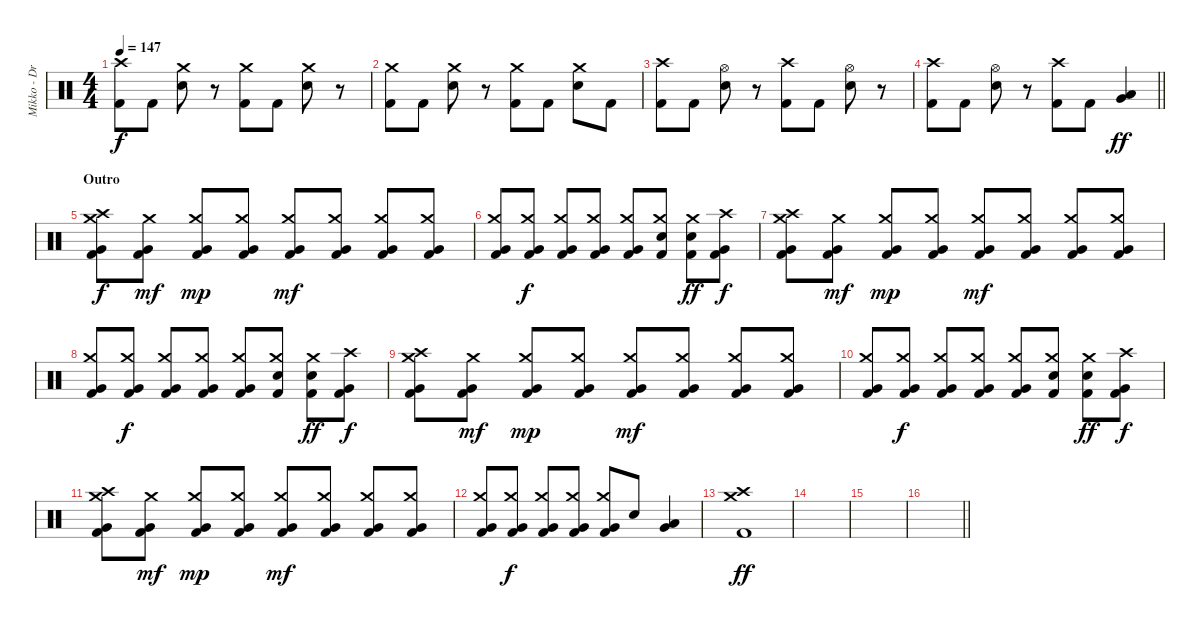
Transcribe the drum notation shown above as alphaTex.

\track ("Mikko - Drums" "Mikko - Dr") {instrument percussion}
\staff {score}
\articulation defaults
\ts (4 4)
\tempo 147
\clef neutral
\ks c
("Crash high (hit)" "Kick (hit) 2").8{dy f} "Kick (hit) 2".8 ("Crash medium (hit)" "Snare (hit) 2").8 r.8 ("Crash medium (hit)" "Kick (hit) 2").8 "Kick (hit) 2".8 ("Crash medium (hit)" "Snare (hit) 2").8 r.8 |
("Crash medium (hit)" "Kick (hit) 2").8 "Kick (hit) 2".8 ("Crash medium (hit)" "Snare (hit) 2").8 r.8 ("Crash medium (hit)" "Kick (hit) 2").8 "Kick (hit) 2".8 ("Crash medium (hit)" "Snare (hit) 2").8 "Kick (hit) 2".8 |
("Crash high (hit)" "Kick (hit) 2").8 "Kick (hit) 2".8 ("Hi-Hat (open)" "Snare (hit) 2").8 r.8 ("Crash high (hit)" "Kick (hit) 2").8 "Kick (hit) 2".8 ("Hi-Hat (open)" "Snare (hit) 2").8 r.8 |
\barLineRight lightlight
("Crash high (hit)" "Kick (hit) 2").8 "Kick (hit) 2".8 ("Hi-Hat (open)" "Snare (hit) 2").8 r.8 ("Crash high (hit)" "Kick (hit) 2").8 "Kick (hit) 2".8 ("Low Tom (hit)" "Very Low Tom (hit)").4{dy ff} |
\section ("" "Outro")
("Crash medium (hit)" "Crash high (hit)" "Very Low Tom (hit)" "Kick (hit) 2").8{dy f} ("Crash medium (hit)" "Very Low Tom (hit)" "Kick (hit) 2").8{dy mf} ("Crash medium (hit)" "Very Low Tom (hit)" "Kick (hit) 2").8{dy mp} ("Crash medium (hit)" "Very Low Tom (hit)" "Kick (hit) 2").8 ("Crash medium (hit)" "Very Low Tom (hit)" "Kick (hit) 2").8{dy mf} ("Crash medium (hit)" "Very Low Tom (hit)" "Kick (hit) 2").8 ("Crash medium (hit)" "Very Low Tom (hit)" "Kick (hit) 2").8 ("Crash medium (hit)" "Very Low Tom (hit)" "Kick (hit) 2").8 |
("Crash medium (hit)" "Very Low Tom (hit)" "Kick (hit) 2").8 ("Crash medium (hit)" "Very Low Tom (hit)" "Kick (hit) 2").8{dy f} ("Crash medium (hit)" "Very Low Tom (hit)" "Kick (hit) 2").8 ("Crash medium (hit)" "Very Low Tom (hit)" "Kick (hit) 2").8 ("Crash medium (hit)" "Very Low Tom (hit)" "Kick (hit) 2").8 ("Crash medium (hit)" "Snare (hit) 2" "Kick (hit) 2").8 ("Crash medium (hit)" "Snare (hit) 2" "Kick (hit) 2").8{dy ff} ("Crash high (hit)" "Very Low Tom (hit)" "Kick (hit) 2").8{dy f} |
("Crash medium (hit)" "Crash high (hit)" "Very Low Tom (hit)" "Kick (hit) 2").8 ("Crash medium (hit)" "Very Low Tom (hit)" "Kick (hit) 2").8{dy mf} ("Crash medium (hit)" "Very Low Tom (hit)" "Kick (hit) 2").8{dy mp} ("Crash medium (hit)" "Very Low Tom (hit)" "Kick (hit) 2").8 ("Crash medium (hit)" "Very Low Tom (hit)" "Kick (hit) 2").8{dy mf} ("Crash medium (hit)" "Very Low Tom (hit)" "Kick (hit) 2").8 ("Crash medium (hit)" "Very Low Tom (hit)" "Kick (hit) 2").8 ("Crash medium (hit)" "Very Low Tom (hit)" "Kick (hit) 2").8 |
("Crash medium (hit)" "Very Low Tom (hit)" "Kick (hit) 2").8 ("Crash medium (hit)" "Very Low Tom (hit)" "Kick (hit) 2").8{dy f} ("Crash medium (hit)" "Very Low Tom (hit)" "Kick (hit) 2").8 ("Crash medium (hit)" "Very Low Tom (hit)" "Kick (hit) 2").8 ("Crash medium (hit)" "Very Low Tom (hit)" "Kick (hit) 2").8 ("Crash medium (hit)" "Snare (hit) 2" "Kick (hit) 2").8 ("Crash medium (hit)" "Snare (hit) 2" "Kick (hit) 2").8{dy ff} ("Crash high (hit)" "Very Low Tom (hit)" "Kick (hit) 2").8{dy f} |
("Crash medium (hit)" "Crash high (hit)" "Very Low Tom (hit)" "Kick (hit) 2").8 ("Crash medium (hit)" "Very Low Tom (hit)" "Kick (hit) 2").8{dy mf} ("Crash medium (hit)" "Very Low Tom (hit)" "Kick (hit) 2").8{dy mp} ("Crash medium (hit)" "Very Low Tom (hit)" "Kick (hit) 2").8 ("Crash medium (hit)" "Very Low Tom (hit)" "Kick (hit) 2").8{dy mf} ("Crash medium (hit)" "Very Low Tom (hit)" "Kick (hit) 2").8 ("Crash medium (hit)" "Very Low Tom (hit)" "Kick (hit) 2").8 ("Crash medium (hit)" "Very Low Tom (hit)" "Kick (hit) 2").8 |
("Crash medium (hit)" "Very Low Tom (hit)" "Kick (hit) 2").8 ("Crash medium (hit)" "Very Low Tom (hit)" "Kick (hit) 2").8{dy f} ("Crash medium (hit)" "Very Low Tom (hit)" "Kick (hit) 2").8 ("Crash medium (hit)" "Very Low Tom (hit)" "Kick (hit) 2").8 ("Crash medium (hit)" "Very Low Tom (hit)" "Kick (hit) 2").8 ("Crash medium (hit)" "Snare (hit) 2" "Kick (hit) 2").8 ("Crash medium (hit)" "Snare (hit) 2" "Kick (hit) 2").8{dy ff} ("Crash high (hit)" "Very Low Tom (hit)" "Kick (hit) 2").8{dy f} |
("Crash medium (hit)" "Crash high (hit)" "Very Low Tom (hit)" "Kick (hit) 2").8 ("Crash medium (hit)" "Very Low Tom (hit)" "Kick (hit) 2").8{dy mf} ("Crash medium (hit)" "Very Low Tom (hit)" "Kick (hit) 2").8{dy mp} ("Crash medium (hit)" "Very Low Tom (hit)" "Kick (hit) 2").8 ("Crash medium (hit)" "Very Low Tom (hit)" "Kick (hit) 2").8{dy mf} ("Crash medium (hit)" "Very Low Tom (hit)" "Kick (hit) 2").8 ("Crash medium (hit)" "Very Low Tom (hit)" "Kick (hit) 2").8 ("Crash medium (hit)" "Very Low Tom (hit)" "Kick (hit) 2").8 |
("Crash medium (hit)" "Very Low Tom (hit)" "Kick (hit) 2").8 ("Crash medium (hit)" "Very Low Tom (hit)" "Kick (hit) 2").8{dy f} ("Crash medium (hit)" "Very Low Tom (hit)" "Kick (hit) 2").8 ("Crash medium (hit)" "Very Low Tom (hit)" "Kick (hit) 2").8 ("Crash medium (hit)" "Very Low Tom (hit)" "Kick (hit) 2").8 "Snare (hit) 2".8 ("Low Tom (hit)" "Very Low Tom (hit)").4 |
("Crash medium (hit)" "Crash high (hit)" "Kick (hit) 2").1{dy ff} |
|
|
\barLineRight lightlight
